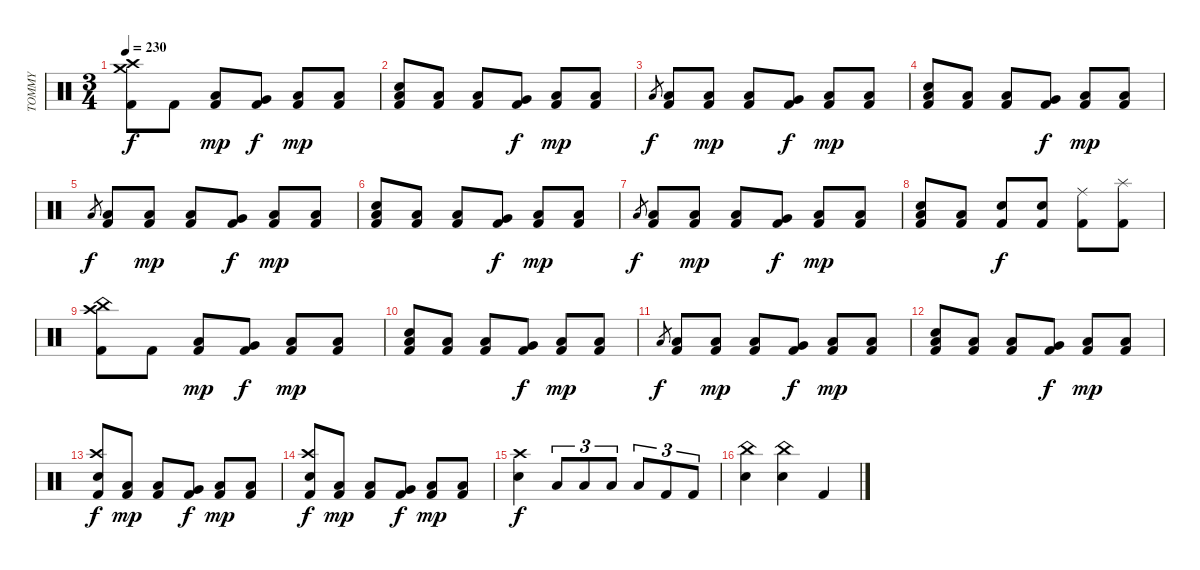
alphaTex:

\track ("TOMMY" "TOMMY") {instrument percussion}
\staff {score}
\articulation defaults
\ts (3 4)
\tempo 230
\clef neutral
\ks c
("Kick (hit) 2" "Crash high (hit)" "Crash medium (hit)").8{dy f} "Kick (hit) 2".8 ("Kick (hit) 2" "Low Floor Tom (hit)").8{dy mp} ("Kick (hit) 2" "Very Low Tom (hit)").8{dy f} ("Kick (hit) 2" "Low Floor Tom (hit)").8{dy mp} ("Kick (hit) 2" "Low Floor Tom (hit)").8 |
("Snare (hit) 2" "Kick (hit) 2" "Low Floor Tom (hit)").8 ("Kick (hit) 2" "Low Floor Tom (hit)").8 ("Kick (hit) 2" "Low Floor Tom (hit)").8 ("Kick (hit) 2" "Very Low Tom (hit)").8{dy f} ("Kick (hit) 2" "Low Floor Tom (hit)").8{dy mp} ("Kick (hit) 2" "Low Floor Tom (hit)").8 |
"Low Floor Tom (hit)".8{gr dy f} ("Kick (hit) 2" "Low Floor Tom (hit)").8 ("Kick (hit) 2" "Low Floor Tom (hit)").8{dy mp} ("Kick (hit) 2" "Low Floor Tom (hit)").8 ("Kick (hit) 2" "Very Low Tom (hit)").8{dy f} ("Kick (hit) 2" "Low Floor Tom (hit)").8{dy mp} ("Kick (hit) 2" "Low Floor Tom (hit)").8 |
("Snare (hit) 2" "Kick (hit) 2" "Low Floor Tom (hit)").8 ("Kick (hit) 2" "Low Floor Tom (hit)").8 ("Kick (hit) 2" "Low Floor Tom (hit)").8 ("Kick (hit) 2" "Very Low Tom (hit)").8{dy f} ("Kick (hit) 2" "Low Floor Tom (hit)").8{dy mp} ("Kick (hit) 2" "Low Floor Tom (hit)").8 |
"Low Floor Tom (hit)".8{gr dy f} ("Kick (hit) 2" "Low Floor Tom (hit)").8 ("Kick (hit) 2" "Low Floor Tom (hit)").8{dy mp} ("Kick (hit) 2" "Low Floor Tom (hit)").8 ("Kick (hit) 2" "Very Low Tom (hit)").8{dy f} ("Kick (hit) 2" "Low Floor Tom (hit)").8{dy mp} ("Kick (hit) 2" "Low Floor Tom (hit)").8 |
("Snare (hit) 2" "Kick (hit) 2" "Low Floor Tom (hit)").8 ("Kick (hit) 2" "Low Floor Tom (hit)").8 ("Kick (hit) 2" "Low Floor Tom (hit)").8 ("Kick (hit) 2" "Very Low Tom (hit)").8{dy f} ("Kick (hit) 2" "Low Floor Tom (hit)").8{dy mp} ("Kick (hit) 2" "Low Floor Tom (hit)").8 |
"Low Floor Tom (hit)".8{gr dy f} ("Kick (hit) 2" "Low Floor Tom (hit)").8 ("Kick (hit) 2" "Low Floor Tom (hit)").8{dy mp} ("Kick (hit) 2" "Low Floor Tom (hit)").8 ("Kick (hit) 2" "Very Low Tom (hit)").8{dy f} ("Kick (hit) 2" "Low Floor Tom (hit)").8{dy mp} ("Kick (hit) 2" "Low Floor Tom (hit)").8 |
("Snare (hit) 2" "Kick (hit) 2" "Low Floor Tom (hit)").8 ("Kick (hit) 2" "Low Floor Tom (hit)").8 ("Snare (hit) 2" "Kick (hit) 2").8{dy f} ("Snare (hit) 2" "Kick (hit) 2").8 ("Kick (hit) 2" "Ride (middle)").8 ("Kick (hit) 2" "Splash (hit)").8 |
("Kick (hit) 2" "Crash high (hit)" "China (hit)").8 "Kick (hit) 2".8 ("Kick (hit) 2" "Low Floor Tom (hit)").8{dy mp} ("Kick (hit) 2" "Very Low Tom (hit)").8{dy f} ("Kick (hit) 2" "Low Floor Tom (hit)").8{dy mp} ("Kick (hit) 2" "Low Floor Tom (hit)").8 |
("Snare (hit) 2" "Kick (hit) 2" "Low Floor Tom (hit)").8 ("Kick (hit) 2" "Low Floor Tom (hit)").8 ("Kick (hit) 2" "Low Floor Tom (hit)").8 ("Kick (hit) 2" "Very Low Tom (hit)").8{dy f} ("Kick (hit) 2" "Low Floor Tom (hit)").8{dy mp} ("Kick (hit) 2" "Low Floor Tom (hit)").8 |
"Low Floor Tom (hit)".8{gr dy f} ("Kick (hit) 2" "Low Floor Tom (hit)").8 ("Kick (hit) 2" "Low Floor Tom (hit)").8{dy mp} ("Kick (hit) 2" "Low Floor Tom (hit)").8 ("Kick (hit) 2" "Very Low Tom (hit)").8{dy f} ("Kick (hit) 2" "Low Floor Tom (hit)").8{dy mp} ("Kick (hit) 2" "Low Floor Tom (hit)").8 |
("Snare (hit) 2" "Kick (hit) 2" "Low Floor Tom (hit)").8 ("Kick (hit) 2" "Low Floor Tom (hit)").8 ("Kick (hit) 2" "Low Floor Tom (hit)").8 ("Kick (hit) 2" "Very Low Tom (hit)").8{dy f} ("Kick (hit) 2" "Low Floor Tom (hit)").8{dy mp} ("Kick (hit) 2" "Low Floor Tom (hit)").8 |
("Snare (hit) 2" "Kick (hit) 2" "Crash high (hit)").8{dy f} ("Kick (hit) 2" "Low Floor Tom (hit)").8{dy mp} ("Kick (hit) 2" "Low Floor Tom (hit)").8 ("Kick (hit) 2" "Very Low Tom (hit)").8{dy f} ("Kick (hit) 2" "Low Floor Tom (hit)").8{dy mp} ("Kick (hit) 2" "Low Floor Tom (hit)").8 |
("Snare (hit) 2" "Kick (hit) 2" "Crash high (hit)").8{dy f} ("Kick (hit) 2" "Low Floor Tom (hit)").8{dy mp} ("Kick (hit) 2" "Low Floor Tom (hit)").8 ("Kick (hit) 2" "Very Low Tom (hit)").8{dy f} ("Kick (hit) 2" "Low Floor Tom (hit)").8{dy mp} ("Kick (hit) 2" "Low Floor Tom (hit)").8 |
("Snare (hit) 2" "Crash high (hit)").4{dy f} "Low Floor Tom (hit)".8{tu (3 2)} "Low Floor Tom (hit)".8{tu (3 2)} "Low Floor Tom (hit)".8{tu (3 2)} "Low Floor Tom (hit)".8{tu (3 2)} "Kick (hit) 2".8{tu (3 2)} "Kick (hit) 2".8{tu (3 2)} |
("Snare (hit) 2" "China (hit)").4 ("Snare (hit) 2" "China (hit)").4 "Kick (hit) 2".4
